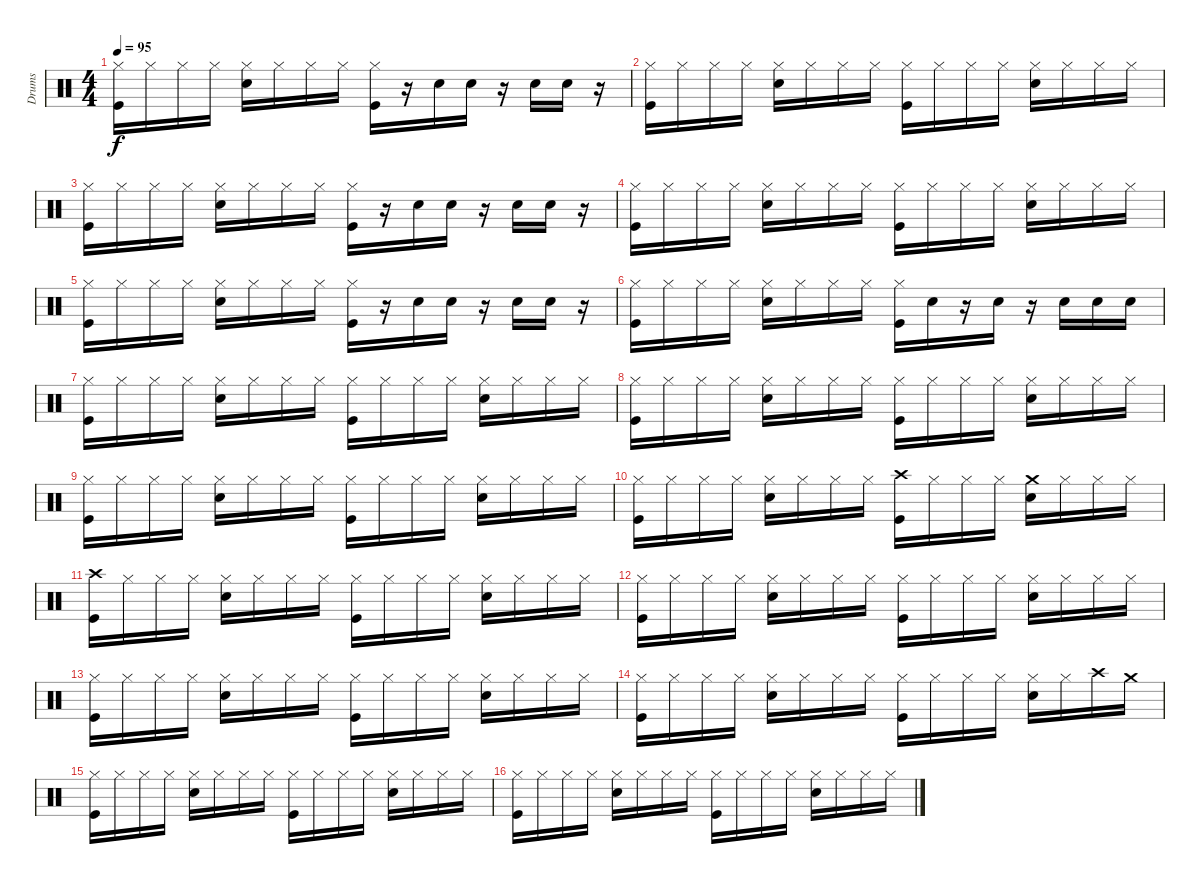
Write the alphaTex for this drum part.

\track ("Drums" "Drums") {instrument percussion}
\staff {score}
\articulation defaults
\ts (4 4)
\tempo 95
\clef neutral
\ks c
("Hi-Hat (closed)" "Kick (hit)").16{dy f} "Hi-Hat (closed)".16 "Hi-Hat (closed)".16 "Hi-Hat (closed)".16 ("Hi-Hat (closed)" "Snare (hit) 2").16 "Hi-Hat (closed)".16 "Hi-Hat (closed)".16 "Hi-Hat (closed)".16 ("Hi-Hat (closed)" "Kick (hit)").16 r.16 "Snare (hit) 2".16 "Snare (hit) 2".16 r.16 "Snare (hit) 2".16 "Snare (hit) 2".16 r.16 |
("Hi-Hat (closed)" "Kick (hit)").16 "Hi-Hat (closed)".16 "Hi-Hat (closed)".16 "Hi-Hat (closed)".16 ("Hi-Hat (closed)" "Snare (hit) 2").16 "Hi-Hat (closed)".16 "Hi-Hat (closed)".16 "Hi-Hat (closed)".16 ("Hi-Hat (closed)" "Kick (hit)").16 "Hi-Hat (closed)".16 "Hi-Hat (closed)".16 "Hi-Hat (closed)".16 ("Hi-Hat (closed)" "Snare (hit) 2").16 "Hi-Hat (closed)".16 "Hi-Hat (closed)".16 "Hi-Hat (closed)".16 |
("Hi-Hat (closed)" "Kick (hit)").16 "Hi-Hat (closed)".16 "Hi-Hat (closed)".16 "Hi-Hat (closed)".16 ("Hi-Hat (closed)" "Snare (hit) 2").16 "Hi-Hat (closed)".16 "Hi-Hat (closed)".16 "Hi-Hat (closed)".16 ("Hi-Hat (closed)" "Kick (hit)").16 r.16 "Snare (hit) 2".16 "Snare (hit) 2".16 r.16 "Snare (hit) 2".16 "Snare (hit) 2".16 r.16 |
("Hi-Hat (closed)" "Kick (hit)").16 "Hi-Hat (closed)".16 "Hi-Hat (closed)".16 "Hi-Hat (closed)".16 ("Hi-Hat (closed)" "Snare (hit) 2").16 "Hi-Hat (closed)".16 "Hi-Hat (closed)".16 "Hi-Hat (closed)".16 ("Hi-Hat (closed)" "Kick (hit)").16 "Hi-Hat (closed)".16 "Hi-Hat (closed)".16 "Hi-Hat (closed)".16 ("Hi-Hat (closed)" "Snare (hit) 2").16 "Hi-Hat (closed)".16 "Hi-Hat (closed)".16 "Hi-Hat (closed)".16 |
("Hi-Hat (closed)" "Kick (hit)").16 "Hi-Hat (closed)".16 "Hi-Hat (closed)".16 "Hi-Hat (closed)".16 ("Hi-Hat (closed)" "Snare (hit) 2").16 "Hi-Hat (closed)".16 "Hi-Hat (closed)".16 "Hi-Hat (closed)".16 ("Hi-Hat (closed)" "Kick (hit)").16 r.16 "Snare (hit) 2".16 "Snare (hit) 2".16 r.16 "Snare (hit) 2".16 "Snare (hit) 2".16 r.16 |
("Hi-Hat (closed)" "Kick (hit)").16 "Hi-Hat (closed)".16 "Hi-Hat (closed)".16 "Hi-Hat (closed)".16 ("Hi-Hat (closed)" "Snare (hit) 2").16 "Hi-Hat (closed)".16 "Hi-Hat (closed)".16 "Hi-Hat (closed)".16 ("Hi-Hat (closed)" "Kick (hit)").16 "Snare (hit) 2".16 r.16 "Snare (hit) 2".16 r.16 "Snare (hit) 2".16 "Snare (hit) 2".16 "Snare (hit) 2".16 |
("Hi-Hat (closed)" "Kick (hit)").16 "Hi-Hat (closed)".16 "Hi-Hat (closed)".16 "Hi-Hat (closed)".16 ("Hi-Hat (closed)" "Snare (hit) 2").16 "Hi-Hat (closed)".16 "Hi-Hat (closed)".16 "Hi-Hat (closed)".16 ("Hi-Hat (closed)" "Kick (hit)").16 "Hi-Hat (closed)".16 "Hi-Hat (closed)".16 "Hi-Hat (closed)".16 ("Hi-Hat (closed)" "Snare (hit) 2").16 "Hi-Hat (closed)".16 "Hi-Hat (closed)".16 "Hi-Hat (closed)".16 |
("Hi-Hat (closed)" "Kick (hit)").16 "Hi-Hat (closed)".16 "Hi-Hat (closed)".16 "Hi-Hat (closed)".16 ("Hi-Hat (closed)" "Snare (hit) 2").16 "Hi-Hat (closed)".16 "Hi-Hat (closed)".16 "Hi-Hat (closed)".16 ("Hi-Hat (closed)" "Kick (hit)").16 "Hi-Hat (closed)".16 "Hi-Hat (closed)".16 "Hi-Hat (closed)".16 ("Hi-Hat (closed)" "Snare (hit) 2").16 "Hi-Hat (closed)".16 "Hi-Hat (closed)".16 "Hi-Hat (closed)".16 |
("Hi-Hat (closed)" "Kick (hit)").16 "Hi-Hat (closed)".16 "Hi-Hat (closed)".16 "Hi-Hat (closed)".16 ("Hi-Hat (closed)" "Snare (hit) 2").16 "Hi-Hat (closed)".16 "Hi-Hat (closed)".16 "Hi-Hat (closed)".16 ("Hi-Hat (closed)" "Kick (hit)").16 "Hi-Hat (closed)".16 "Hi-Hat (closed)".16 "Hi-Hat (closed)".16 ("Hi-Hat (closed)" "Snare (hit) 2").16 "Hi-Hat (closed)".16 "Hi-Hat (closed)".16 "Hi-Hat (closed)".16 |
("Hi-Hat (closed)" "Kick (hit)").16 "Hi-Hat (closed)".16 "Hi-Hat (closed)".16 "Hi-Hat (closed)".16 ("Hi-Hat (closed)" "Snare (hit) 2").16 "Hi-Hat (closed)".16 "Hi-Hat (closed)".16 "Hi-Hat (closed)".16 ("Crash high (hit)" "Kick (hit)").16 "Hi-Hat (closed)".16 "Hi-Hat (closed)".16 "Hi-Hat (closed)".16 ("Crash medium (hit)" "Snare (hit) 2").16 "Hi-Hat (closed)".16 "Hi-Hat (closed)".16 "Hi-Hat (closed)".16 |
("Crash high (hit)" "Kick (hit)").16 "Hi-Hat (closed)".16 "Hi-Hat (closed)".16 "Hi-Hat (closed)".16 ("Hi-Hat (closed)" "Snare (hit) 2").16 "Hi-Hat (closed)".16 "Hi-Hat (closed)".16 "Hi-Hat (closed)".16 ("Hi-Hat (closed)" "Kick (hit)").16 "Hi-Hat (closed)".16 "Hi-Hat (closed)".16 "Hi-Hat (closed)".16 ("Hi-Hat (closed)" "Snare (hit) 2").16 "Hi-Hat (closed)".16 "Hi-Hat (closed)".16 "Hi-Hat (closed)".16 |
("Hi-Hat (closed)" "Kick (hit)").16 "Hi-Hat (closed)".16 "Hi-Hat (closed)".16 "Hi-Hat (closed)".16 ("Hi-Hat (closed)" "Snare (hit) 2").16 "Hi-Hat (closed)".16 "Hi-Hat (closed)".16 "Hi-Hat (closed)".16 ("Hi-Hat (closed)" "Kick (hit)").16 "Hi-Hat (closed)".16 "Hi-Hat (closed)".16 "Hi-Hat (closed)".16 ("Hi-Hat (closed)" "Snare (hit) 2").16 "Hi-Hat (closed)".16 "Hi-Hat (closed)".16 "Hi-Hat (closed)".16 |
("Hi-Hat (closed)" "Kick (hit)").16 "Hi-Hat (closed)".16 "Hi-Hat (closed)".16 "Hi-Hat (closed)".16 ("Hi-Hat (closed)" "Snare (hit) 2").16 "Hi-Hat (closed)".16 "Hi-Hat (closed)".16 "Hi-Hat (closed)".16 ("Hi-Hat (closed)" "Kick (hit)").16 "Hi-Hat (closed)".16 "Hi-Hat (closed)".16 "Hi-Hat (closed)".16 ("Hi-Hat (closed)" "Snare (hit) 2").16 "Hi-Hat (closed)".16 "Hi-Hat (closed)".16 "Hi-Hat (closed)".16 |
("Hi-Hat (closed)" "Kick (hit)").16 "Hi-Hat (closed)".16 "Hi-Hat (closed)".16 "Hi-Hat (closed)".16 ("Hi-Hat (closed)" "Snare (hit) 2").16 "Hi-Hat (closed)".16 "Hi-Hat (closed)".16 "Hi-Hat (closed)".16 ("Hi-Hat (closed)" "Kick (hit)").16 "Hi-Hat (closed)".16 "Hi-Hat (closed)".16 "Hi-Hat (closed)".16 ("Hi-Hat (closed)" "Snare (hit) 2").16 "Hi-Hat (closed)".16 "Crash high (hit)".16 "Crash medium (hit)".16 |
("Hi-Hat (closed)" "Kick (hit)").16 "Hi-Hat (closed)".16 "Hi-Hat (closed)".16 "Hi-Hat (closed)".16 ("Hi-Hat (closed)" "Snare (hit) 2").16 "Hi-Hat (closed)".16 "Hi-Hat (closed)".16 "Hi-Hat (closed)".16 ("Hi-Hat (closed)" "Kick (hit)").16 "Hi-Hat (closed)".16 "Hi-Hat (closed)".16 "Hi-Hat (closed)".16 ("Hi-Hat (closed)" "Snare (hit) 2").16 "Hi-Hat (closed)".16 "Hi-Hat (closed)".16 "Hi-Hat (closed)".16 |
("Hi-Hat (closed)" "Kick (hit)").16 "Hi-Hat (closed)".16 "Hi-Hat (closed)".16 "Hi-Hat (closed)".16 ("Hi-Hat (closed)" "Snare (hit) 2").16 "Hi-Hat (closed)".16 "Hi-Hat (closed)".16 "Hi-Hat (closed)".16 ("Hi-Hat (closed)" "Kick (hit)").16 "Hi-Hat (closed)".16 "Hi-Hat (closed)".16 "Hi-Hat (closed)".16 ("Hi-Hat (closed)" "Snare (hit) 2").16 "Hi-Hat (closed)".16 "Hi-Hat (closed)".16 "Hi-Hat (closed)".16
